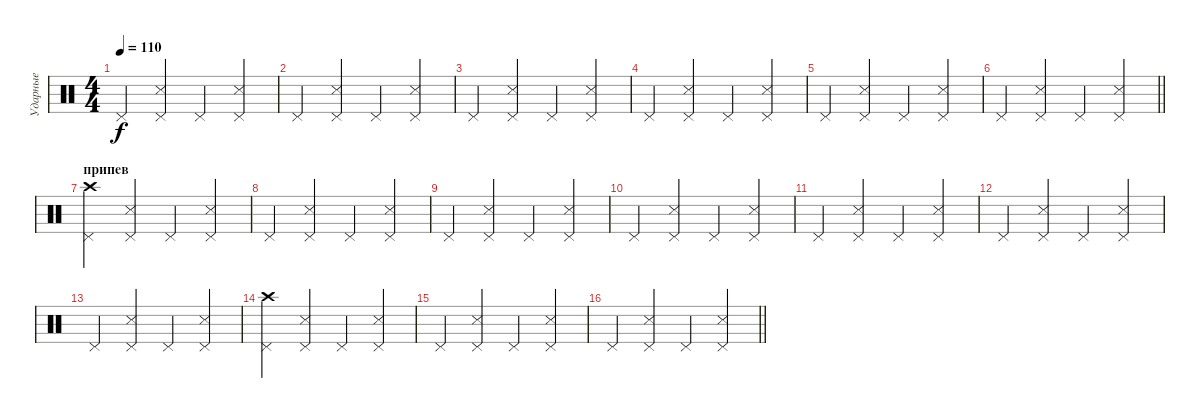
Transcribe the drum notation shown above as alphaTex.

\track ("Ударные" "Ударные") {instrument percussion}
\staff {score}
\articulation defaults
\ts (4 4)
\tempo 110
\clef neutral
\ks c "Pedal Hi-Hat (hit)".4{dy f}
("Pedal Hi-Hat (hit)" "Snare (side stick) 3").4 "Pedal Hi-Hat (hit)".4 ("Pedal Hi-Hat (hit)" "Snare (side stick) 3").4 |
"Pedal Hi-Hat (hit)".4 ("Pedal Hi-Hat (hit)" "Snare (side stick) 3").4 "Pedal Hi-Hat (hit)".4 ("Pedal Hi-Hat (hit)" "Snare (side stick) 3").4 |
"Pedal Hi-Hat (hit)".4 ("Pedal Hi-Hat (hit)" "Snare (side stick) 3").4 "Pedal Hi-Hat (hit)".4 ("Pedal Hi-Hat (hit)" "Snare (side stick) 3").4 |
"Pedal Hi-Hat (hit)".4 ("Pedal Hi-Hat (hit)" "Snare (side stick) 3").4 "Pedal Hi-Hat (hit)".4 ("Pedal Hi-Hat (hit)" "Snare (side stick) 3").4 |
"Pedal Hi-Hat (hit)".4 ("Pedal Hi-Hat (hit)" "Snare (side stick) 3").4 "Pedal Hi-Hat (hit)".4 ("Pedal Hi-Hat (hit)" "Snare (side stick) 3").4 |
\barLineRight lightlight "Pedal Hi-Hat (hit)".4
("Pedal Hi-Hat (hit)" "Snare (side stick) 3").4 "Pedal Hi-Hat (hit)".4 ("Pedal Hi-Hat (hit)" "Snare (side stick) 3").4 |
\section ("" "припев")
("Pedal Hi-Hat (hit)" "Crash high (hit)").4 ("Pedal Hi-Hat (hit)" "Snare (side stick) 3").4 "Pedal Hi-Hat (hit)".4 ("Pedal Hi-Hat (hit)" "Snare (side stick) 3").4 |
"Pedal Hi-Hat (hit)".4 ("Pedal Hi-Hat (hit)" "Snare (side stick) 3").4 "Pedal Hi-Hat (hit)".4 ("Pedal Hi-Hat (hit)" "Snare (side stick) 3").4 |
"Pedal Hi-Hat (hit)".4 ("Pedal Hi-Hat (hit)" "Snare (side stick) 3").4 "Pedal Hi-Hat (hit)".4 ("Pedal Hi-Hat (hit)" "Snare (side stick) 3").4 |
"Pedal Hi-Hat (hit)".4 ("Pedal Hi-Hat (hit)" "Snare (side stick) 3").4 "Pedal Hi-Hat (hit)".4 ("Pedal Hi-Hat (hit)" "Snare (side stick) 3").4 |
"Pedal Hi-Hat (hit)".4 ("Pedal Hi-Hat (hit)" "Snare (side stick) 3").4 "Pedal Hi-Hat (hit)".4 ("Pedal Hi-Hat (hit)" "Snare (side stick) 3").4 |
"Pedal Hi-Hat (hit)".4 ("Pedal Hi-Hat (hit)" "Snare (side stick) 3").4 "Pedal Hi-Hat (hit)".4 ("Pedal Hi-Hat (hit)" "Snare (side stick) 3").4 |
"Pedal Hi-Hat (hit)".4 ("Pedal Hi-Hat (hit)" "Snare (side stick) 3").4 "Pedal Hi-Hat (hit)".4 ("Pedal Hi-Hat (hit)" "Snare (side stick) 3").4 |
("Pedal Hi-Hat (hit)" "Crash high (hit)").4 ("Pedal Hi-Hat (hit)" "Snare (side stick) 3").4 "Pedal Hi-Hat (hit)".4 ("Pedal Hi-Hat (hit)" "Snare (side stick) 3").4 |
"Pedal Hi-Hat (hit)".4 ("Pedal Hi-Hat (hit)" "Snare (side stick) 3").4 "Pedal Hi-Hat (hit)".4 ("Pedal Hi-Hat (hit)" "Snare (side stick) 3").4 |
\barLineRight lightlight "Pedal Hi-Hat (hit)".4
("Pedal Hi-Hat (hit)" "Snare (side stick) 3").4 "Pedal Hi-Hat (hit)".4 ("Pedal Hi-Hat (hit)" "Snare (side stick) 3").4
